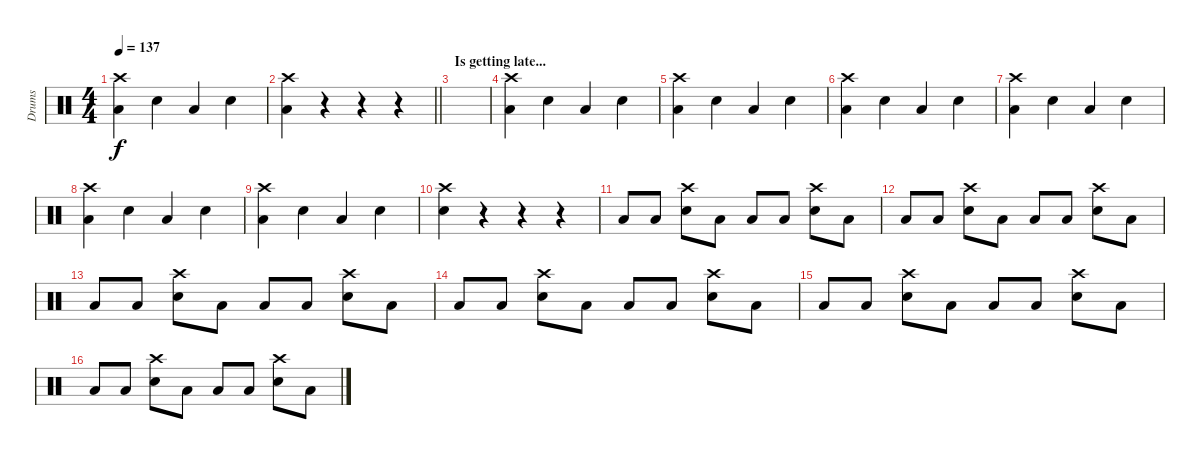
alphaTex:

\track ("Drums" "Drums") {instrument percussion}
\staff {score}
\articulation defaults
\ts (4 4)
\tempo 137
\clef neutral
\ks c
("Crash high (hit)" "Low Floor Tom (hit)").4{dy f} "Electric Snare (hit)".4 "Low Floor Tom (hit)".4 "Electric Snare (hit)".4 |
\barLineRight lightlight
("Crash high (hit)" "Low Floor Tom (hit)").4 r.4 r.4 r.4 |
\section ("" "Is getting late...")
|
("Crash high (hit)" "Low Floor Tom (hit)").4 "Electric Snare (hit)".4 "Low Floor Tom (hit)".4 "Electric Snare (hit)".4 |
("Crash high (hit)" "Low Floor Tom (hit)").4 "Electric Snare (hit)".4 "Low Floor Tom (hit)".4 "Electric Snare (hit)".4 |
("Crash high (hit)" "Low Floor Tom (hit)").4 "Electric Snare (hit)".4 "Low Floor Tom (hit)".4 "Electric Snare (hit)".4 |
("Crash high (hit)" "Low Floor Tom (hit)").4 "Electric Snare (hit)".4 "Low Floor Tom (hit)".4 "Electric Snare (hit)".4 |
("Crash high (hit)" "Low Floor Tom (hit)").4 "Electric Snare (hit)".4 "Low Floor Tom (hit)".4 "Electric Snare (hit)".4 |
("Crash high (hit)" "Low Floor Tom (hit)").4 "Electric Snare (hit)".4 "Low Floor Tom (hit)".4 "Electric Snare (hit)".4 |
("Crash high (hit)" "Electric Snare (hit)").4 r.4 r.4 r.4 |
"Low Floor Tom (hit)".8 "Low Floor Tom (hit)".8 ("Crash high (hit)" "Electric Snare (hit)").8 "Low Floor Tom (hit)".8 "Low Floor Tom (hit)".8 "Low Floor Tom (hit)".8 ("Crash high (hit)" "Electric Snare (hit)").8 "Low Floor Tom (hit)".8 |
"Low Floor Tom (hit)".8 "Low Floor Tom (hit)".8 ("Crash high (hit)" "Electric Snare (hit)").8 "Low Floor Tom (hit)".8 "Low Floor Tom (hit)".8 "Low Floor Tom (hit)".8 ("Crash high (hit)" "Electric Snare (hit)").8 "Low Floor Tom (hit)".8 |
"Low Floor Tom (hit)".8 "Low Floor Tom (hit)".8 ("Crash high (hit)" "Electric Snare (hit)").8 "Low Floor Tom (hit)".8 "Low Floor Tom (hit)".8 "Low Floor Tom (hit)".8 ("Crash high (hit)" "Electric Snare (hit)").8 "Low Floor Tom (hit)".8 |
"Low Floor Tom (hit)".8 "Low Floor Tom (hit)".8 ("Crash high (hit)" "Electric Snare (hit)").8 "Low Floor Tom (hit)".8 "Low Floor Tom (hit)".8 "Low Floor Tom (hit)".8 ("Crash high (hit)" "Electric Snare (hit)").8 "Low Floor Tom (hit)".8 |
"Low Floor Tom (hit)".8 "Low Floor Tom (hit)".8 ("Crash high (hit)" "Electric Snare (hit)").8 "Low Floor Tom (hit)".8 "Low Floor Tom (hit)".8 "Low Floor Tom (hit)".8 ("Crash high (hit)" "Electric Snare (hit)").8 "Low Floor Tom (hit)".8 |
"Low Floor Tom (hit)".8 "Low Floor Tom (hit)".8 ("Crash high (hit)" "Electric Snare (hit)").8 "Low Floor Tom (hit)".8 "Low Floor Tom (hit)".8 "Low Floor Tom (hit)".8 ("Crash high (hit)" "Electric Snare (hit)").8 "Low Floor Tom (hit)".8
